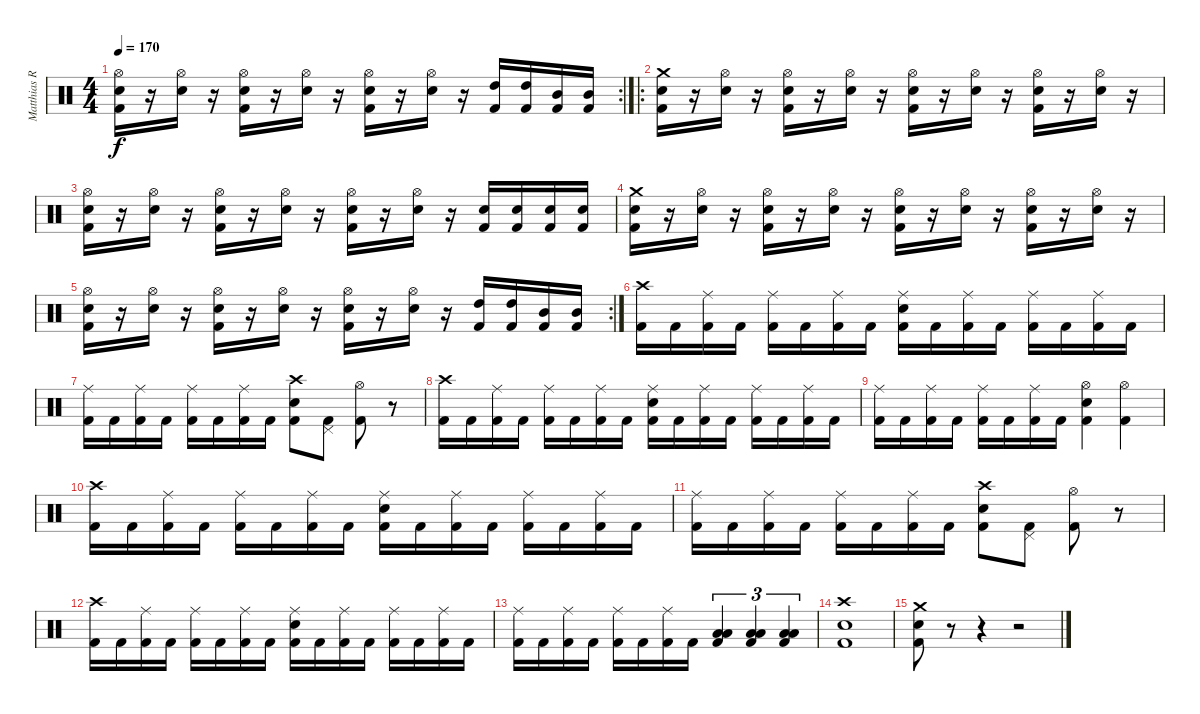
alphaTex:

\track ("Matthias R." "Matthias R") {instrument percussion}
\staff {score}
\articulation defaults
\rc 2
\ts (4 4)
\tempo 170
\clef neutral
\ks c
("Kick (hit) 2" "Snare (hit) 2" "Hi-Hat (open)").16{dy f} r.16 ("Snare (hit) 2" "Hi-Hat (open)").16 r.16 ("Kick (hit) 2" "Snare (hit) 2" "Hi-Hat (open)").16 r.16 ("Snare (hit) 2" "Hi-Hat (open)").16 r.16 ("Kick (hit) 2" "Snare (hit) 2" "Hi-Hat (open)").16 r.16 ("Snare (hit) 2" "Hi-Hat (open)").16 r.16 ("Kick (hit) 2" "High Tom (hit)").16 ("Kick (hit) 2" "High Tom (hit)").16 ("Kick (hit) 2" "Mid Tom (hit)").16 ("Kick (hit) 2" "Mid Tom (hit)").16 |
\ro
("Kick (hit) 2" "Snare (hit) 2" "Crash medium (hit)").16 r.16 ("Snare (hit) 2" "Hi-Hat (open)").16 r.16 ("Kick (hit) 2" "Snare (hit) 2" "Hi-Hat (open)").16 r.16 ("Snare (hit) 2" "Hi-Hat (open)").16 r.16 ("Kick (hit) 2" "Snare (hit) 2" "Hi-Hat (open)").16 r.16 ("Snare (hit) 2" "Hi-Hat (open)").16 r.16 ("Kick (hit) 2" "Snare (hit) 2" "Hi-Hat (open)").16 r.16 ("Snare (hit) 2" "Hi-Hat (open)").16 r.16 |
("Kick (hit) 2" "Snare (hit) 2" "Hi-Hat (open)").16 r.16 ("Snare (hit) 2" "Hi-Hat (open)").16 r.16 ("Kick (hit) 2" "Snare (hit) 2" "Hi-Hat (open)").16 r.16 ("Snare (hit) 2" "Hi-Hat (open)").16 r.16 ("Kick (hit) 2" "Snare (hit) 2" "Hi-Hat (open)").16 r.16 ("Snare (hit) 2" "Hi-Hat (open)").16 r.16 ("Kick (hit) 2" "Snare (hit) 2").16 ("Kick (hit) 2" "Snare (hit) 2").16 ("Kick (hit) 2" "Snare (hit) 2").16 ("Kick (hit) 2" "Snare (hit) 2").16 |
("Kick (hit) 2" "Snare (hit) 2" "Crash medium (hit)").16 r.16 ("Snare (hit) 2" "Hi-Hat (open)").16 r.16 ("Kick (hit) 2" "Snare (hit) 2" "Hi-Hat (open)").16 r.16 ("Snare (hit) 2" "Hi-Hat (open)").16 r.16 ("Kick (hit) 2" "Snare (hit) 2" "Hi-Hat (open)").16 r.16 ("Snare (hit) 2" "Hi-Hat (open)").16 r.16 ("Kick (hit) 2" "Snare (hit) 2" "Hi-Hat (open)").16 r.16 ("Snare (hit) 2" "Hi-Hat (open)").16 r.16 |
\rc 2
("Kick (hit) 2" "Snare (hit) 2" "Hi-Hat (open)").16 r.16 ("Snare (hit) 2" "Hi-Hat (open)").16 r.16 ("Kick (hit) 2" "Snare (hit) 2" "Hi-Hat (open)").16 r.16 ("Snare (hit) 2" "Hi-Hat (open)").16 r.16 ("Kick (hit) 2" "Snare (hit) 2" "Hi-Hat (open)").16 r.16 ("Snare (hit) 2" "Hi-Hat (open)").16 r.16 ("Kick (hit) 2" "High Tom (hit)").16 ("Kick (hit) 2" "High Tom (hit)").16 ("Kick (hit) 2" "Mid Tom (hit)").16 ("Kick (hit) 2" "Mid Tom (hit)").16 |
("Kick (hit) 2" "Crash high (hit)").16 "Kick (hit) 2".16 ("Kick (hit) 2" "Ride (middle)").16 "Kick (hit) 2".16 ("Kick (hit) 2" "Ride (middle)").16 "Kick (hit) 2".16 ("Kick (hit) 2" "Ride (middle)").16 "Kick (hit) 2".16 ("Kick (hit) 2" "Snare (hit) 2" "Ride (middle)").16 "Kick (hit) 2".16 ("Kick (hit) 2" "Ride (middle)").16 "Kick (hit) 2".16 ("Kick (hit) 2" "Ride (middle)").16 "Kick (hit) 2".16 ("Kick (hit) 2" "Ride (middle)").16 "Kick (hit) 2".16 |
("Kick (hit) 2" "Ride (middle)").16 "Kick (hit) 2".16 ("Kick (hit) 2" "Ride (middle)").16 "Kick (hit) 2".16 ("Kick (hit) 2" "Ride (middle)").16 "Kick (hit) 2".16 ("Kick (hit) 2" "Ride (middle)").16 "Kick (hit) 2".16 ("Kick (hit) 2" "Snare (hit) 2" "Crash high (hit)").8 ("Kick (hit) 2" "Pedal Hi-Hat (hit)").8 ("Kick (hit) 2" "Hi-Hat (open)").8 r.8 |
("Kick (hit) 2" "Crash high (hit)").16 "Kick (hit) 2".16 ("Kick (hit) 2" "Ride (middle)").16 "Kick (hit) 2".16 ("Kick (hit) 2" "Ride (middle)").16 "Kick (hit) 2".16 ("Kick (hit) 2" "Ride (middle)").16 "Kick (hit) 2".16 ("Kick (hit) 2" "Snare (hit) 2" "Ride (middle)").16 "Kick (hit) 2".16 ("Kick (hit) 2" "Ride (middle)").16 "Kick (hit) 2".16 ("Kick (hit) 2" "Ride (middle)").16 "Kick (hit) 2".16 ("Kick (hit) 2" "Ride (middle)").16 "Kick (hit) 2".16 |
("Kick (hit) 2" "Ride (middle)").16 "Kick (hit) 2".16 ("Kick (hit) 2" "Ride (middle)").16 "Kick (hit) 2".16 ("Kick (hit) 2" "Ride (middle)").16 "Kick (hit) 2".16 ("Kick (hit) 2" "Ride (middle)").16 "Kick (hit) 2".16 ("Kick (hit) 2" "Snare (hit) 2" "Hi-Hat (open)").4 ("Kick (hit) 2" "Hi-Hat (open)").4 |
("Kick (hit) 2" "Crash high (hit)").16 "Kick (hit) 2".16 ("Kick (hit) 2" "Ride (middle)").16 "Kick (hit) 2".16 ("Kick (hit) 2" "Ride (middle)").16 "Kick (hit) 2".16 ("Kick (hit) 2" "Ride (middle)").16 "Kick (hit) 2".16 ("Kick (hit) 2" "Snare (hit) 2" "Ride (middle)").16 "Kick (hit) 2".16 ("Kick (hit) 2" "Ride (middle)").16 "Kick (hit) 2".16 ("Kick (hit) 2" "Ride (middle)").16 "Kick (hit) 2".16 ("Kick (hit) 2" "Ride (middle)").16 "Kick (hit) 2".16 |
("Kick (hit) 2" "Ride (middle)").16 "Kick (hit) 2".16 ("Kick (hit) 2" "Ride (middle)").16 "Kick (hit) 2".16 ("Kick (hit) 2" "Ride (middle)").16 "Kick (hit) 2".16 ("Kick (hit) 2" "Ride (middle)").16 "Kick (hit) 2".16 ("Kick (hit) 2" "Snare (hit) 2" "Crash high (hit)").8 ("Kick (hit) 2" "Pedal Hi-Hat (hit)").8 ("Kick (hit) 2" "Hi-Hat (open)").8 r.8 |
("Kick (hit) 2" "Crash high (hit)").16 "Kick (hit) 2".16 ("Kick (hit) 2" "Ride (middle)").16 "Kick (hit) 2".16 ("Kick (hit) 2" "Ride (middle)").16 "Kick (hit) 2".16 ("Kick (hit) 2" "Ride (middle)").16 "Kick (hit) 2".16 ("Kick (hit) 2" "Snare (hit) 2" "Ride (middle)").16 "Kick (hit) 2".16 ("Kick (hit) 2" "Ride (middle)").16 "Kick (hit) 2".16 ("Kick (hit) 2" "Ride (middle)").16 "Kick (hit) 2".16 ("Kick (hit) 2" "Ride (middle)").16 "Kick (hit) 2".16 |
("Kick (hit) 2" "Ride (middle)").16 "Kick (hit) 2".16 ("Kick (hit) 2" "Ride (middle)").16 "Kick (hit) 2".16 ("Kick (hit) 2" "Ride (middle)").16 "Kick (hit) 2".16 ("Kick (hit) 2" "Ride (middle)").16 "Kick (hit) 2".16 ("Kick (hit) 2" "Low Tom (hit)" "Low Tom (hit)").4{tu (3 2)} ("Kick (hit) 2" "Low Tom (hit)" "Low Tom (hit)").4{tu (3 2)} ("Kick (hit) 2" "Low Tom (hit)" "Low Tom (hit)").4{tu (3 2)} |
("Kick (hit) 2" "Snare (hit) 2" "Crash high (hit)").1 |
("Kick (hit) 2" "Snare (hit) 2" "Crash medium (hit)").8 r.8 r.4 r.2
